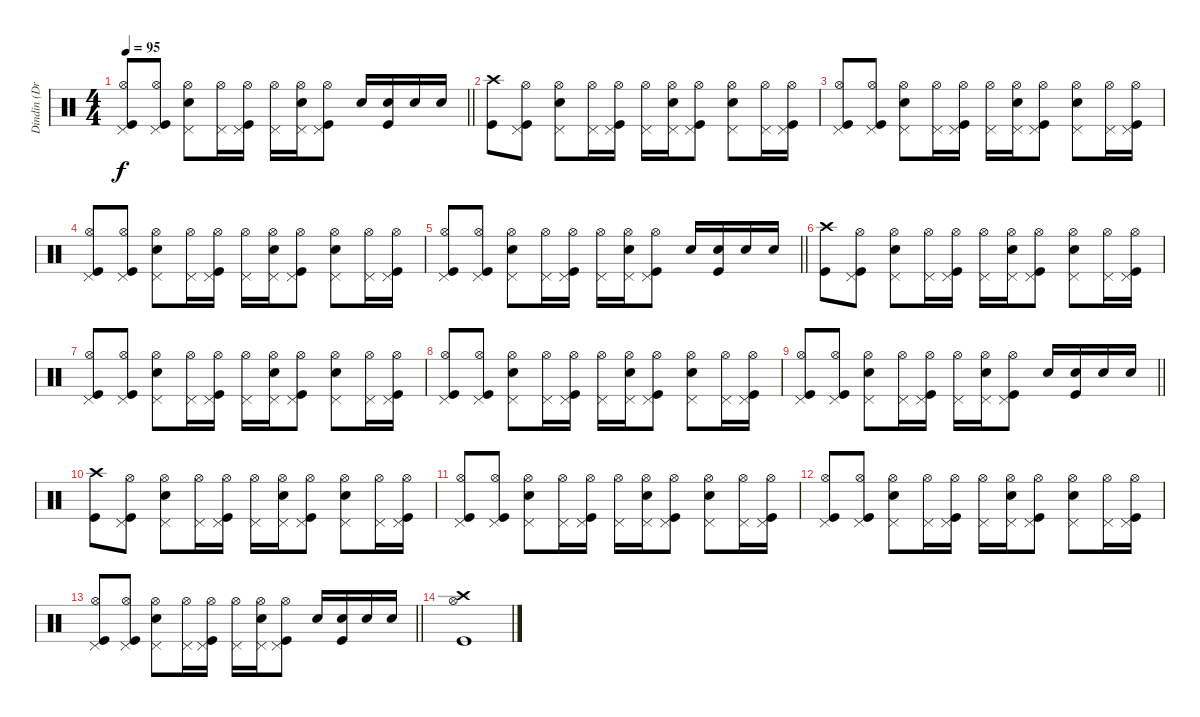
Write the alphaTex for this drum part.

\track ("Dindin (Drums)" "Dindin (Dr") {instrument percussion}
\staff {score}
\articulation defaults
\ts (4 4)
\tempo 95
\clef neutral
\barLineRight lightlight
\ks c
("Pedal Hi-Hat (hit)" "Hi-Hat (open)" "Kick (hit)").8{dy f} ("Pedal Hi-Hat (hit)" "Hi-Hat (open)" "Kick (hit)").8 ("Pedal Hi-Hat (hit)" "Hi-Hat (open)" "Snare (hit) 2").8 ("Pedal Hi-Hat (hit)" "Hi-Hat (open)").16 ("Pedal Hi-Hat (hit)" "Hi-Hat (open)" "Kick (hit)").16 ("Pedal Hi-Hat (hit)" "Hi-Hat (open)").16 ("Pedal Hi-Hat (hit)" "Hi-Hat (open)" "Snare (hit) 2").16 ("Pedal Hi-Hat (hit)" "Hi-Hat (open)" "Kick (hit)").8 "Snare (hit) 2".16 ("Snare (hit) 2" "Kick (hit)").16 "Snare (hit) 2".16 "Snare (hit) 2".16 |
("Crash high (hit)" "Kick (hit)").8 ("Pedal Hi-Hat (hit)" "Hi-Hat (open)" "Kick (hit)").8 ("Pedal Hi-Hat (hit)" "Hi-Hat (open)" "Snare (hit) 2").8 ("Pedal Hi-Hat (hit)" "Hi-Hat (open)").16 ("Pedal Hi-Hat (hit)" "Hi-Hat (open)" "Kick (hit)").16 ("Pedal Hi-Hat (hit)" "Hi-Hat (open)").16 ("Pedal Hi-Hat (hit)" "Hi-Hat (open)" "Snare (hit) 2").16 ("Pedal Hi-Hat (hit)" "Hi-Hat (open)" "Kick (hit)").8 ("Pedal Hi-Hat (hit)" "Hi-Hat (open)" "Snare (hit) 2").8 ("Pedal Hi-Hat (hit)" "Hi-Hat (open)").16 ("Pedal Hi-Hat (hit)" "Hi-Hat (open)" "Kick (hit)").16 |
("Pedal Hi-Hat (hit)" "Hi-Hat (open)" "Kick (hit)").8 ("Pedal Hi-Hat (hit)" "Hi-Hat (open)" "Kick (hit)").8 ("Pedal Hi-Hat (hit)" "Hi-Hat (open)" "Snare (hit) 2").8 ("Pedal Hi-Hat (hit)" "Hi-Hat (open)").16 ("Pedal Hi-Hat (hit)" "Hi-Hat (open)" "Kick (hit)").16 ("Pedal Hi-Hat (hit)" "Hi-Hat (open)").16 ("Pedal Hi-Hat (hit)" "Hi-Hat (open)" "Snare (hit) 2").16 ("Pedal Hi-Hat (hit)" "Hi-Hat (open)" "Kick (hit)").8 ("Pedal Hi-Hat (hit)" "Hi-Hat (open)" "Snare (hit) 2").8 ("Pedal Hi-Hat (hit)" "Hi-Hat (open)").16 ("Pedal Hi-Hat (hit)" "Hi-Hat (open)" "Kick (hit)").16 |
("Pedal Hi-Hat (hit)" "Hi-Hat (open)" "Kick (hit)").8 ("Pedal Hi-Hat (hit)" "Hi-Hat (open)" "Kick (hit)").8 ("Pedal Hi-Hat (hit)" "Hi-Hat (open)" "Snare (hit) 2").8 ("Pedal Hi-Hat (hit)" "Hi-Hat (open)").16 ("Pedal Hi-Hat (hit)" "Hi-Hat (open)" "Kick (hit)").16 ("Pedal Hi-Hat (hit)" "Hi-Hat (open)").16 ("Pedal Hi-Hat (hit)" "Hi-Hat (open)" "Snare (hit) 2").16 ("Pedal Hi-Hat (hit)" "Hi-Hat (open)" "Kick (hit)").8 ("Pedal Hi-Hat (hit)" "Hi-Hat (open)" "Snare (hit) 2").8 ("Pedal Hi-Hat (hit)" "Hi-Hat (open)").16 ("Pedal Hi-Hat (hit)" "Hi-Hat (open)" "Kick (hit)").16 |
\barLineRight lightlight
("Pedal Hi-Hat (hit)" "Hi-Hat (open)" "Kick (hit)").8 ("Pedal Hi-Hat (hit)" "Hi-Hat (open)" "Kick (hit)").8 ("Pedal Hi-Hat (hit)" "Hi-Hat (open)" "Snare (hit) 2").8 ("Pedal Hi-Hat (hit)" "Hi-Hat (open)").16 ("Pedal Hi-Hat (hit)" "Hi-Hat (open)" "Kick (hit)").16 ("Pedal Hi-Hat (hit)" "Hi-Hat (open)").16 ("Pedal Hi-Hat (hit)" "Hi-Hat (open)" "Snare (hit) 2").16 ("Pedal Hi-Hat (hit)" "Hi-Hat (open)" "Kick (hit)").8 "Snare (hit) 2".16 ("Snare (hit) 2" "Kick (hit)").16 "Snare (hit) 2".16 "Snare (hit) 2".16 |
("Crash high (hit)" "Kick (hit)").8 ("Pedal Hi-Hat (hit)" "Hi-Hat (open)" "Kick (hit)").8 ("Pedal Hi-Hat (hit)" "Hi-Hat (open)" "Snare (hit) 2").8 ("Pedal Hi-Hat (hit)" "Hi-Hat (open)").16 ("Pedal Hi-Hat (hit)" "Hi-Hat (open)" "Kick (hit)").16 ("Pedal Hi-Hat (hit)" "Hi-Hat (open)").16 ("Pedal Hi-Hat (hit)" "Hi-Hat (open)" "Snare (hit) 2").16 ("Pedal Hi-Hat (hit)" "Hi-Hat (open)" "Kick (hit)").8 ("Pedal Hi-Hat (hit)" "Hi-Hat (open)" "Snare (hit) 2").8 ("Pedal Hi-Hat (hit)" "Hi-Hat (open)").16 ("Pedal Hi-Hat (hit)" "Hi-Hat (open)" "Kick (hit)").16 |
("Pedal Hi-Hat (hit)" "Hi-Hat (open)" "Kick (hit)").8 ("Pedal Hi-Hat (hit)" "Hi-Hat (open)" "Kick (hit)").8 ("Pedal Hi-Hat (hit)" "Hi-Hat (open)" "Snare (hit) 2").8 ("Pedal Hi-Hat (hit)" "Hi-Hat (open)").16 ("Pedal Hi-Hat (hit)" "Hi-Hat (open)" "Kick (hit)").16 ("Pedal Hi-Hat (hit)" "Hi-Hat (open)").16 ("Pedal Hi-Hat (hit)" "Hi-Hat (open)" "Snare (hit) 2").16 ("Pedal Hi-Hat (hit)" "Hi-Hat (open)" "Kick (hit)").8 ("Pedal Hi-Hat (hit)" "Hi-Hat (open)" "Snare (hit) 2").8 ("Pedal Hi-Hat (hit)" "Hi-Hat (open)").16 ("Pedal Hi-Hat (hit)" "Hi-Hat (open)" "Kick (hit)").16 |
("Pedal Hi-Hat (hit)" "Hi-Hat (open)" "Kick (hit)").8 ("Pedal Hi-Hat (hit)" "Hi-Hat (open)" "Kick (hit)").8 ("Pedal Hi-Hat (hit)" "Hi-Hat (open)" "Snare (hit) 2").8 ("Pedal Hi-Hat (hit)" "Hi-Hat (open)").16 ("Pedal Hi-Hat (hit)" "Hi-Hat (open)" "Kick (hit)").16 ("Pedal Hi-Hat (hit)" "Hi-Hat (open)").16 ("Pedal Hi-Hat (hit)" "Hi-Hat (open)" "Snare (hit) 2").16 ("Pedal Hi-Hat (hit)" "Hi-Hat (open)" "Kick (hit)").8 ("Pedal Hi-Hat (hit)" "Hi-Hat (open)" "Snare (hit) 2").8 ("Pedal Hi-Hat (hit)" "Hi-Hat (open)").16 ("Pedal Hi-Hat (hit)" "Hi-Hat (open)" "Kick (hit)").16 |
\barLineRight lightlight
("Pedal Hi-Hat (hit)" "Hi-Hat (open)" "Kick (hit)").8 ("Pedal Hi-Hat (hit)" "Hi-Hat (open)" "Kick (hit)").8 ("Pedal Hi-Hat (hit)" "Hi-Hat (open)" "Snare (hit) 2").8 ("Pedal Hi-Hat (hit)" "Hi-Hat (open)").16 ("Pedal Hi-Hat (hit)" "Hi-Hat (open)" "Kick (hit)").16 ("Pedal Hi-Hat (hit)" "Hi-Hat (open)").16 ("Pedal Hi-Hat (hit)" "Hi-Hat (open)" "Snare (hit) 2").16 ("Pedal Hi-Hat (hit)" "Hi-Hat (open)" "Kick (hit)").8 "Snare (hit) 2".16 ("Snare (hit) 2" "Kick (hit)").16 "Snare (hit) 2".16 "Snare (hit) 2".16 |
("Crash high (hit)" "Kick (hit)").8 ("Pedal Hi-Hat (hit)" "Hi-Hat (open)" "Kick (hit)").8 ("Pedal Hi-Hat (hit)" "Hi-Hat (open)" "Snare (hit) 2").8 ("Pedal Hi-Hat (hit)" "Hi-Hat (open)").16 ("Pedal Hi-Hat (hit)" "Hi-Hat (open)" "Kick (hit)").16 ("Pedal Hi-Hat (hit)" "Hi-Hat (open)").16 ("Pedal Hi-Hat (hit)" "Hi-Hat (open)" "Snare (hit) 2").16 ("Pedal Hi-Hat (hit)" "Hi-Hat (open)" "Kick (hit)").8 ("Pedal Hi-Hat (hit)" "Hi-Hat (open)" "Snare (hit) 2").8 ("Pedal Hi-Hat (hit)" "Hi-Hat (open)").16 ("Pedal Hi-Hat (hit)" "Hi-Hat (open)" "Kick (hit)").16 |
("Pedal Hi-Hat (hit)" "Hi-Hat (open)" "Kick (hit)").8 ("Pedal Hi-Hat (hit)" "Hi-Hat (open)" "Kick (hit)").8 ("Pedal Hi-Hat (hit)" "Hi-Hat (open)" "Snare (hit) 2").8 ("Pedal Hi-Hat (hit)" "Hi-Hat (open)").16 ("Pedal Hi-Hat (hit)" "Hi-Hat (open)" "Kick (hit)").16 ("Pedal Hi-Hat (hit)" "Hi-Hat (open)").16 ("Pedal Hi-Hat (hit)" "Hi-Hat (open)" "Snare (hit) 2").16 ("Pedal Hi-Hat (hit)" "Hi-Hat (open)" "Kick (hit)").8 ("Pedal Hi-Hat (hit)" "Hi-Hat (open)" "Snare (hit) 2").8 ("Pedal Hi-Hat (hit)" "Hi-Hat (open)").16 ("Pedal Hi-Hat (hit)" "Hi-Hat (open)" "Kick (hit)").16 |
("Pedal Hi-Hat (hit)" "Hi-Hat (open)" "Kick (hit)").8 ("Pedal Hi-Hat (hit)" "Hi-Hat (open)" "Kick (hit)").8 ("Pedal Hi-Hat (hit)" "Hi-Hat (open)" "Snare (hit) 2").8 ("Pedal Hi-Hat (hit)" "Hi-Hat (open)").16 ("Pedal Hi-Hat (hit)" "Hi-Hat (open)" "Kick (hit)").16 ("Pedal Hi-Hat (hit)" "Hi-Hat (open)").16 ("Pedal Hi-Hat (hit)" "Hi-Hat (open)" "Snare (hit) 2").16 ("Pedal Hi-Hat (hit)" "Hi-Hat (open)" "Kick (hit)").8 ("Pedal Hi-Hat (hit)" "Hi-Hat (open)" "Snare (hit) 2").8 ("Pedal Hi-Hat (hit)" "Hi-Hat (open)").16 ("Pedal Hi-Hat (hit)" "Hi-Hat (open)" "Kick (hit)").16 |
\barLineRight lightlight
("Pedal Hi-Hat (hit)" "Hi-Hat (open)" "Kick (hit)").8 ("Pedal Hi-Hat (hit)" "Hi-Hat (open)" "Kick (hit)").8 ("Pedal Hi-Hat (hit)" "Hi-Hat (open)" "Snare (hit) 2").8 ("Pedal Hi-Hat (hit)" "Hi-Hat (open)").16 ("Pedal Hi-Hat (hit)" "Hi-Hat (open)" "Kick (hit)").16 ("Pedal Hi-Hat (hit)" "Hi-Hat (open)").16 ("Pedal Hi-Hat (hit)" "Hi-Hat (open)" "Snare (hit) 2").16 ("Pedal Hi-Hat (hit)" "Hi-Hat (open)" "Kick (hit)").8 "Snare (hit) 2".16 ("Snare (hit) 2" "Kick (hit)").16 "Snare (hit) 2".16 "Snare (hit) 2".16 |
("Crash high (hit)" "Hi-Hat (open)" "Kick (hit)").1
